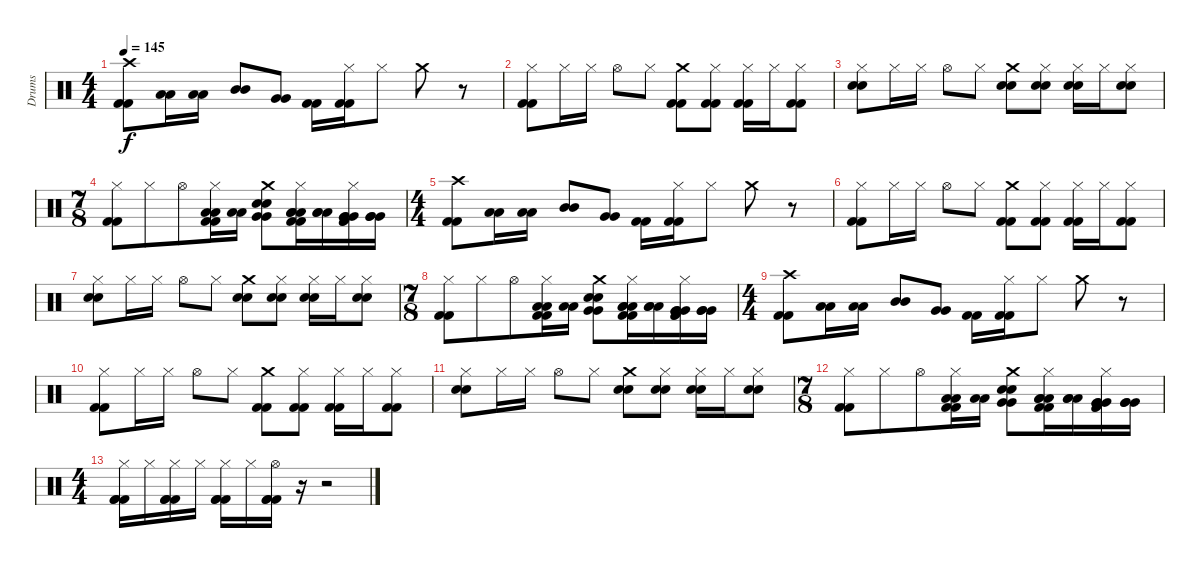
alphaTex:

\track ("Drums" "Drums") {instrument percussion}
\staff {score}
\articulation defaults
\ts (4 4)
\tempo 145
\clef neutral
\ks c
("Crash high (hit)" "Kick (hit) 2" "Kick (hit) 2").8{dy f volume 10} ("Low Tom (hit)" "Low Tom (hit)").16 ("Low Tom (hit)" "Low Tom (hit)").16 ("Mid Tom (hit)" "Mid Tom (hit)").8 ("Very Low Tom (hit)" "Very Low Tom (hit)").8 ("Kick (hit) 2" "Kick (hit) 2").16 ("Hi-Hat (closed)" "Kick (hit) 2" "Kick (hit) 2").16 "Hi-Hat (closed)".8 "Crash medium (hit)".8 r.8 |
("Hi-Hat (closed)" "Kick (hit) 2" "Kick (hit) 2").8 "Hi-Hat (closed)".16 "Hi-Hat (closed)".16 "Hi-Hat (open)".8 "Hi-Hat (closed)".8 ("Crash medium (hit)" "Kick (hit) 2" "Kick (hit) 2").8 ("Hi-Hat (closed)" "Kick (hit) 2" "Kick (hit) 2").8 ("Hi-Hat (closed)" "Kick (hit) 2" "Kick (hit) 2").16 "Hi-Hat (closed)".16 ("Hi-Hat (closed)" "Kick (hit) 2" "Kick (hit) 2").8 |
("Hi-Hat (closed)" "Snare (hit) 2" "Snare (hit) 2").8{volume 9} "Hi-Hat (closed)".16 "Hi-Hat (closed)".16 "Hi-Hat (open)".8 "Hi-Hat (closed)".8 ("Crash medium (hit)" "Snare (hit) 2" "Snare (hit) 2").8 ("Hi-Hat (closed)" "Snare (hit) 2" "Snare (hit) 2").8 ("Hi-Hat (closed)" "Snare (hit) 2" "Snare (hit) 2").16 "Hi-Hat (closed)".16 ("Hi-Hat (closed)" "Snare (hit) 2" "Snare (hit) 2").8 |
\ts (7 8)
("Hi-Hat (closed)" "Kick (hit) 2" "Kick (hit) 2").8 "Hi-Hat (closed)".8 "Hi-Hat (open)".8 ("Low Tom (hit)" "Low Tom (hit)" "Hi-Hat (closed)" "Kick (hit) 2" "Kick (hit) 2").16 ("Low Tom (hit)" "Low Tom (hit)").16 ("Very Low Tom (hit)" "Very Low Tom (hit)" "Crash medium (hit)" "Snare (hit) 2" "Snare (hit) 2").8 ("Kick (hit) 2" "Kick (hit) 2" "Hi-Hat (closed)" "Low Tom (hit)" "Low Tom (hit)" "Low Tom (hit)").16 ("Low Tom (hit)" "Low Tom (hit)" "Low Tom (hit)").16 ("Kick (hit) 2" "Kick (hit) 2" "Hi-Hat (closed)" "Very Low Tom (hit)" "Very Low Tom (hit)" "Very Low Tom (hit)").16 ("Very Low Tom (hit)" "Very Low Tom (hit)" "Very Low Tom (hit)").16 |
\ts (4 4)
("Crash high (hit)" "Kick (hit) 2" "Kick (hit) 2").8{volume 8} ("Low Tom (hit)" "Low Tom (hit)").16 ("Low Tom (hit)" "Low Tom (hit)").16 ("Mid Tom (hit)" "Mid Tom (hit)").8 ("Very Low Tom (hit)" "Very Low Tom (hit)").8 ("Kick (hit) 2" "Kick (hit) 2").16 ("Hi-Hat (closed)" "Kick (hit) 2" "Kick (hit) 2").16 "Hi-Hat (closed)".8 "Crash medium (hit)".8 r.8 |
("Hi-Hat (closed)" "Kick (hit) 2" "Kick (hit) 2").8 "Hi-Hat (closed)".16 "Hi-Hat (closed)".16 "Hi-Hat (open)".8 "Hi-Hat (closed)".8 ("Crash medium (hit)" "Kick (hit) 2" "Kick (hit) 2").8 ("Hi-Hat (closed)" "Kick (hit) 2" "Kick (hit) 2").8 ("Hi-Hat (closed)" "Kick (hit) 2" "Kick (hit) 2").16 "Hi-Hat (closed)".16 ("Hi-Hat (closed)" "Kick (hit) 2" "Kick (hit) 2").8 |
("Hi-Hat (closed)" "Snare (hit) 2" "Snare (hit) 2").8{volume 6} "Hi-Hat (closed)".16 "Hi-Hat (closed)".16 "Hi-Hat (open)".8 "Hi-Hat (closed)".8 ("Crash medium (hit)" "Snare (hit) 2" "Snare (hit) 2").8 ("Hi-Hat (closed)" "Snare (hit) 2" "Snare (hit) 2").8 ("Hi-Hat (closed)" "Snare (hit) 2" "Snare (hit) 2").16 "Hi-Hat (closed)".16 ("Hi-Hat (closed)" "Snare (hit) 2" "Snare (hit) 2").8 |
\ts (7 8)
("Hi-Hat (closed)" "Kick (hit) 2" "Kick (hit) 2").8 "Hi-Hat (closed)".8 "Hi-Hat (open)".8 ("Low Tom (hit)" "Low Tom (hit)" "Hi-Hat (closed)" "Kick (hit) 2" "Kick (hit) 2").16 ("Low Tom (hit)" "Low Tom (hit)").16 ("Very Low Tom (hit)" "Very Low Tom (hit)" "Crash medium (hit)" "Snare (hit) 2" "Snare (hit) 2").8 ("Kick (hit) 2" "Kick (hit) 2" "Hi-Hat (closed)" "Low Tom (hit)" "Low Tom (hit)" "Low Tom (hit)").16 ("Low Tom (hit)" "Low Tom (hit)" "Low Tom (hit)").16 ("Kick (hit) 2" "Kick (hit) 2" "Hi-Hat (closed)" "Very Low Tom (hit)" "Very Low Tom (hit)" "Very Low Tom (hit)").16 ("Very Low Tom (hit)" "Very Low Tom (hit)" "Very Low Tom (hit)").16 |
\ts (4 4)
("Crash high (hit)" "Kick (hit) 2" "Kick (hit) 2").8{volume 5} ("Low Tom (hit)" "Low Tom (hit)").16 ("Low Tom (hit)" "Low Tom (hit)").16 ("Mid Tom (hit)" "Mid Tom (hit)").8 ("Very Low Tom (hit)" "Very Low Tom (hit)").8 ("Kick (hit) 2" "Kick (hit) 2").16 ("Hi-Hat (closed)" "Kick (hit) 2" "Kick (hit) 2").16 "Hi-Hat (closed)".8 "Crash medium (hit)".8 r.8 |
("Hi-Hat (closed)" "Kick (hit) 2" "Kick (hit) 2").8{volume 4} "Hi-Hat (closed)".16 "Hi-Hat (closed)".16 "Hi-Hat (open)".8 "Hi-Hat (closed)".8 ("Crash medium (hit)" "Kick (hit) 2" "Kick (hit) 2").8 ("Hi-Hat (closed)" "Kick (hit) 2" "Kick (hit) 2").8 ("Hi-Hat (closed)" "Kick (hit) 2" "Kick (hit) 2").16 "Hi-Hat (closed)".16 ("Hi-Hat (closed)" "Kick (hit) 2" "Kick (hit) 2").8 |
("Hi-Hat (closed)" "Snare (hit) 2" "Snare (hit) 2").8{volume 3} "Hi-Hat (closed)".16 "Hi-Hat (closed)".16 "Hi-Hat (open)".8 "Hi-Hat (closed)".8 ("Crash medium (hit)" "Snare (hit) 2" "Snare (hit) 2").8 ("Hi-Hat (closed)" "Snare (hit) 2" "Snare (hit) 2").8 ("Hi-Hat (closed)" "Snare (hit) 2" "Snare (hit) 2").16 "Hi-Hat (closed)".16 ("Hi-Hat (closed)" "Snare (hit) 2" "Snare (hit) 2").8 |
\ts (7 8)
("Hi-Hat (closed)" "Kick (hit) 2" "Kick (hit) 2").8{volume 2} "Hi-Hat (closed)".8 "Hi-Hat (open)".8 ("Low Tom (hit)" "Low Tom (hit)" "Hi-Hat (closed)" "Kick (hit) 2" "Kick (hit) 2").16 ("Low Tom (hit)" "Low Tom (hit)").16 ("Very Low Tom (hit)" "Very Low Tom (hit)" "Crash medium (hit)" "Snare (hit) 2" "Snare (hit) 2").8 ("Kick (hit) 2" "Kick (hit) 2" "Hi-Hat (closed)" "Low Tom (hit)" "Low Tom (hit)" "Low Tom (hit)").16 ("Low Tom (hit)" "Low Tom (hit)" "Low Tom (hit)").16 ("Kick (hit) 2" "Kick (hit) 2" "Hi-Hat (closed)" "Very Low Tom (hit)" "Very Low Tom (hit)" "Very Low Tom (hit)").16 ("Very Low Tom (hit)" "Very Low Tom (hit)" "Very Low Tom (hit)").16 |
\ts (4 4)
("Hi-Hat (closed)" "Kick (hit) 2" "Kick (hit) 2" "Kick (hit) 2").16{volume 1} "Hi-Hat (closed)".16 ("Hi-Hat (closed)" "Kick (hit) 2" "Kick (hit) 2" "Kick (hit) 2").16 "Hi-Hat (closed)".16 ("Hi-Hat (closed)" "Kick (hit) 2" "Kick (hit) 2" "Kick (hit) 2").16{volume 0} "Hi-Hat (closed)".16 ("Hi-Hat (open)" "Kick (hit) 2" "Kick (hit) 2" "Kick (hit) 2").16 r.16 r.2
